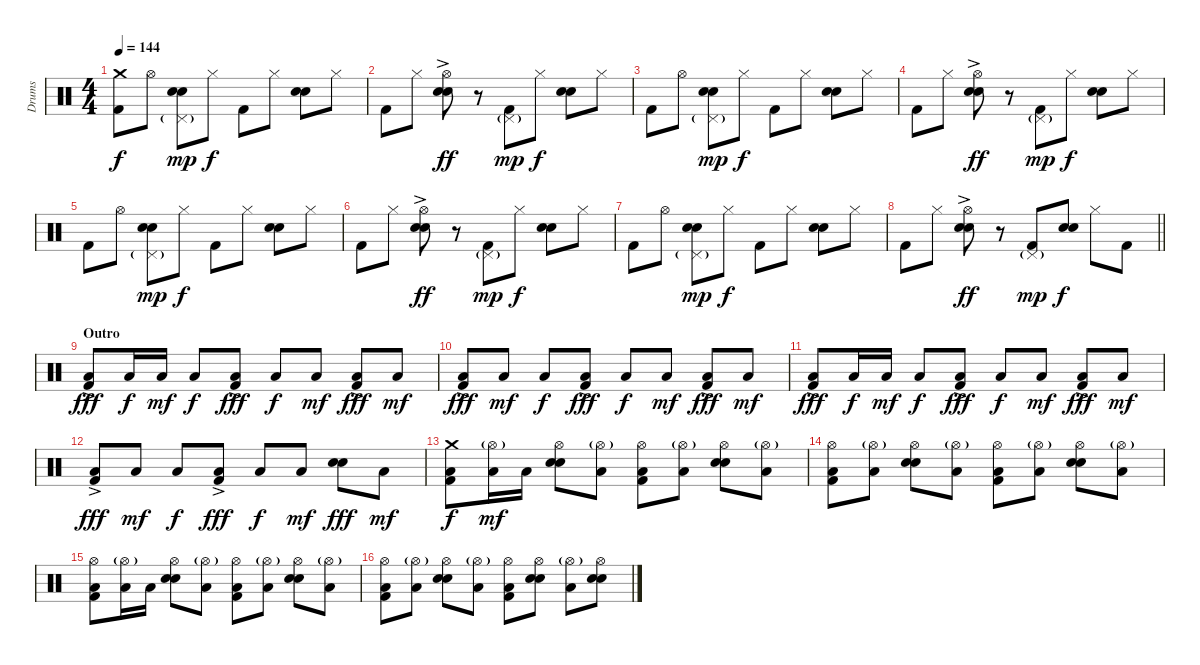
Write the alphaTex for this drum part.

\track ("Drums" "Drums") {instrument percussion}
\staff {score}
\articulation defaults
\ts (4 4)
\tempo 144
\clef neutral
\ks c
("Crash medium (hit)" "Kick (hit) 2").8{dy f} "Hi-Hat (open)".8 ("Pedal Hi-Hat (hit)"{g} "Electric Snare (hit)" "Snare (hit) 2").8{dy mp} "Hi-Hat (closed)".8{dy f} "Kick (hit) 2".8 "Hi-Hat (closed)".8 ("Electric Snare (hit)" "Snare (hit) 2").8 "Hi-Hat (closed)".8 |
"Kick (hit) 2".8 "Hi-Hat (closed)".8 ("Hi-Hat (open)"{ac} "Electric Snare (hit)" "Snare (hit) 2").8{dy ff} r.8 ("Pedal Hi-Hat (hit)"{g} "Kick (hit) 2").8{dy mp} "Hi-Hat (closed)".8{dy f} ("Electric Snare (hit)" "Snare (hit) 2").8 "Hi-Hat (closed)".8 |
"Kick (hit) 2".8 "Hi-Hat (open)".8 ("Pedal Hi-Hat (hit)"{g} "Electric Snare (hit)" "Snare (hit) 2").8{dy mp} "Hi-Hat (closed)".8{dy f} "Kick (hit) 2".8 "Hi-Hat (closed)".8 ("Electric Snare (hit)" "Snare (hit) 2").8 "Hi-Hat (closed)".8 |
"Kick (hit) 2".8 "Hi-Hat (closed)".8 ("Hi-Hat (open)"{ac} "Electric Snare (hit)" "Snare (hit) 2").8{dy ff} r.8 ("Pedal Hi-Hat (hit)"{g} "Kick (hit) 2").8{dy mp} "Hi-Hat (closed)".8{dy f} ("Electric Snare (hit)" "Snare (hit) 2").8 "Hi-Hat (closed)".8 |
"Kick (hit) 2".8 "Hi-Hat (open)".8 ("Pedal Hi-Hat (hit)"{g} "Electric Snare (hit)" "Snare (hit) 2").8{dy mp} "Hi-Hat (closed)".8{dy f} "Kick (hit) 2".8 "Hi-Hat (closed)".8 ("Electric Snare (hit)" "Snare (hit) 2").8 "Hi-Hat (closed)".8 |
"Kick (hit) 2".8 "Hi-Hat (closed)".8 ("Hi-Hat (open)"{ac} "Electric Snare (hit)" "Snare (hit) 2").8{dy ff} r.8 ("Pedal Hi-Hat (hit)"{g} "Kick (hit) 2").8{dy mp} "Hi-Hat (closed)".8{dy f} ("Electric Snare (hit)" "Snare (hit) 2").8 "Hi-Hat (closed)".8 |
"Kick (hit) 2".8 "Hi-Hat (open)".8 ("Pedal Hi-Hat (hit)"{g} "Electric Snare (hit)" "Snare (hit) 2").8{dy mp} "Hi-Hat (closed)".8{dy f} "Kick (hit) 2".8 "Hi-Hat (closed)".8 ("Electric Snare (hit)" "Snare (hit) 2").8 "Hi-Hat (closed)".8 |
\barLineRight lightlight "Kick (hit) 2".8 "Hi-Hat (closed)".8
("Hi-Hat (open)"{ac} "Electric Snare (hit)" "Snare (hit) 2").8{dy ff} r.8 ("Pedal Hi-Hat (hit)"{g} "Kick (hit) 2").8{dy mp} ("Electric Snare (hit)" "Snare (hit) 2").8{dy f} "Hi-Hat (closed)".8 "Kick (hit) 2".8 |
\section ("" "Outro")
("Low Tom (hit)"{ac} "Kick (hit) 2").8{dy fff} "Low Tom (hit)".16{dy f} "Low Tom (hit)".16{dy mf} "Low Tom (hit)".8{dy f} ("Low Tom (hit)"{ac} "Kick (hit) 2").8{dy fff} "Low Tom (hit)".8{dy f} "Low Tom (hit)".8{dy mf} ("Low Tom (hit)"{ac} "Kick (hit) 2").8{dy fff} "Low Tom (hit)".8{dy mf} |
("Low Tom (hit)"{ac} "Kick (hit) 2").8{dy fff} "Low Tom (hit)".8{dy mf} "Low Tom (hit)".8{dy f} ("Low Tom (hit)"{ac} "Kick (hit) 2").8{dy fff} "Low Tom (hit)".8{dy f} "Low Tom (hit)".8{dy mf} ("Low Tom (hit)"{ac} "Kick (hit) 2").8{dy fff} "Low Tom (hit)".8{dy mf} |
("Low Tom (hit)"{ac} "Kick (hit) 2").8{dy fff} "Low Tom (hit)".16{dy f} "Low Tom (hit)".16{dy mf} "Low Tom (hit)".8{dy f} ("Low Tom (hit)"{ac} "Kick (hit) 2").8{dy fff} "Low Tom (hit)".8{dy f} "Low Tom (hit)".8{dy mf} ("Low Tom (hit)"{ac} "Kick (hit) 2").8{dy fff} "Low Tom (hit)".8{dy mf} |
("Low Tom (hit)"{ac} "Kick (hit) 2").8{dy fff} "Low Tom (hit)".8{dy mf} "Low Tom (hit)".8{dy f} ("Low Tom (hit)"{ac} "Kick (hit) 2").8{dy fff} "Low Tom (hit)".8{dy f} "Low Tom (hit)".8{dy mf} ("Electric Snare (hit)" "Snare (hit) 2").8{dy fff} "Low Tom (hit)".8{dy mf} |
("Crash medium (hit)" "Low Tom (hit)" "Kick (hit) 2").8{dy f} ("Hi-Hat (open)"{g} "Low Tom (hit)").16{dy mf} "Low Tom (hit)".16 ("Hi-Hat (open)" "Electric Snare (hit)" "Snare (hit) 2").8 ("Hi-Hat (open)"{g} "Low Tom (hit)").8 ("Hi-Hat (open)" "Low Tom (hit)" "Kick (hit) 2").8 ("Hi-Hat (open)"{g} "Low Tom (hit)").8 ("Hi-Hat (open)" "Electric Snare (hit)" "Snare (hit) 2").8 ("Hi-Hat (open)"{g} "Low Tom (hit)").8 |
("Hi-Hat (open)" "Low Tom (hit)" "Kick (hit) 2").8 ("Hi-Hat (open)"{g} "Low Tom (hit)").8 ("Hi-Hat (open)" "Electric Snare (hit)" "Snare (hit) 2").8 ("Hi-Hat (open)"{g} "Low Tom (hit)").8 ("Hi-Hat (open)" "Low Tom (hit)" "Kick (hit) 2").8 ("Hi-Hat (open)"{g} "Low Tom (hit)").8 ("Hi-Hat (open)" "Electric Snare (hit)" "Snare (hit) 2").8 ("Hi-Hat (open)"{g} "Low Tom (hit)").8 |
("Hi-Hat (open)" "Low Tom (hit)" "Kick (hit) 2").8 ("Hi-Hat (open)"{g} "Low Tom (hit)").16 "Low Tom (hit)".16 ("Hi-Hat (open)" "Electric Snare (hit)" "Snare (hit) 2").8 ("Hi-Hat (open)"{g} "Low Tom (hit)").8 ("Hi-Hat (open)" "Low Tom (hit)" "Kick (hit) 2").8 ("Hi-Hat (open)"{g} "Low Tom (hit)").8 ("Hi-Hat (open)" "Electric Snare (hit)" "Snare (hit) 2").8 ("Hi-Hat (open)"{g} "Low Tom (hit)").8 |
("Hi-Hat (open)" "Low Tom (hit)" "Kick (hit) 2").8 ("Hi-Hat (open)"{g} "Low Tom (hit)").8 ("Hi-Hat (open)" "Electric Snare (hit)" "Snare (hit) 2").8 ("Hi-Hat (open)"{g} "Low Tom (hit)").8 ("Hi-Hat (open)" "Low Tom (hit)" "Kick (hit) 2").8 ("Hi-Hat (open)" "Electric Snare (hit)" "Snare (hit) 2").8 ("Hi-Hat (open)"{g} "Low Tom (hit)").8 ("Hi-Hat (open)" "Electric Snare (hit)" "Snare (hit) 2").8
